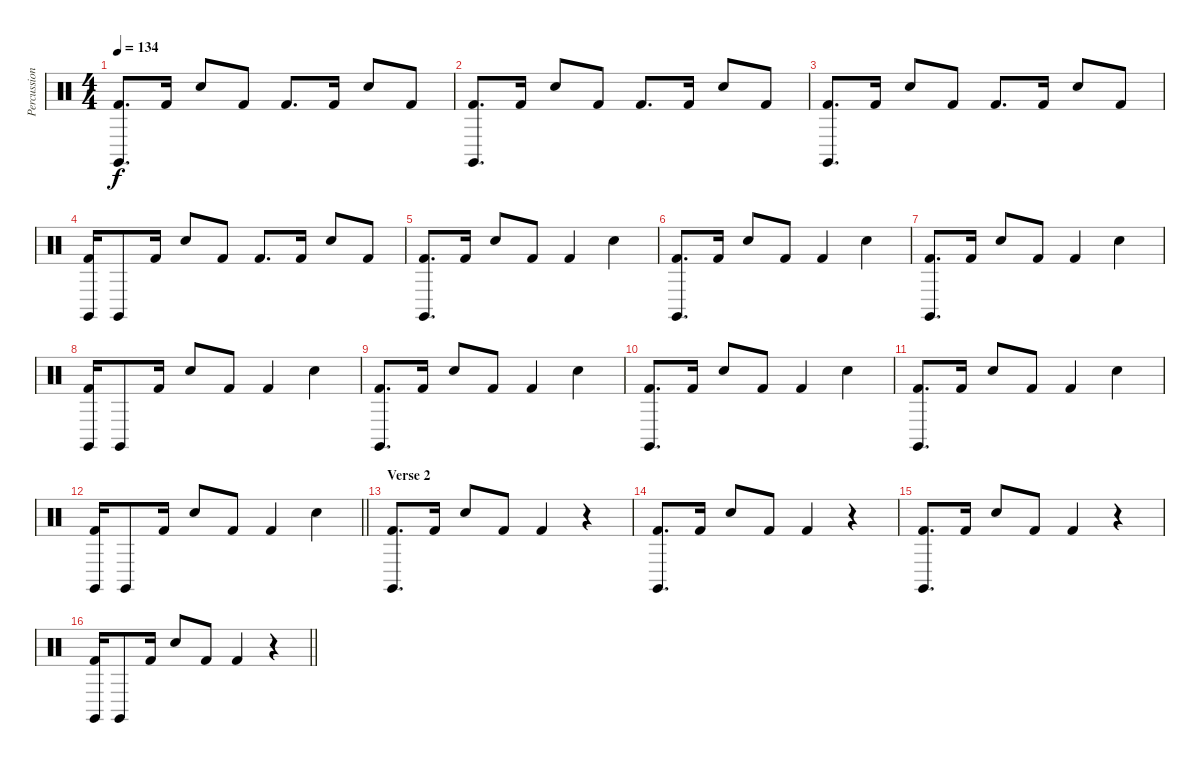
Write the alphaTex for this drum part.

\track ("Percussion" "Percussion") {instrument percussion}
\staff {score}
\articulation defaults
\ts (4 4)
\tempo 134
\clef neutral
\ks c
("Claves (hit)" "Kick (hit) 2").8{d dy f} "Kick (hit) 2".16 "Snare (hit) 2".8 "Kick (hit) 2".8 "Kick (hit) 2".8{d} "Kick (hit) 2".16 "Snare (hit) 2".8 "Kick (hit) 2".8 |
("Claves (hit)" "Kick (hit) 2").8{d} "Kick (hit) 2".16 "Snare (hit) 2".8 "Kick (hit) 2".8 "Kick (hit) 2".8{d} "Kick (hit) 2".16 "Snare (hit) 2".8 "Kick (hit) 2".8 |
("Claves (hit)" "Kick (hit) 2").8{d} "Kick (hit) 2".16 "Snare (hit) 2".8 "Kick (hit) 2".8 "Kick (hit) 2".8{d} "Kick (hit) 2".16 "Snare (hit) 2".8 "Kick (hit) 2".8 |
("Claves (hit)" "Kick (hit) 2").16 "Claves (hit)".8 "Kick (hit) 2".16 "Snare (hit) 2".8 "Kick (hit) 2".8 "Kick (hit) 2".8{d} "Kick (hit) 2".16 "Snare (hit) 2".8 "Kick (hit) 2".8 |
("Claves (hit)" "Kick (hit) 2").8{d} "Kick (hit) 2".16 "Snare (hit) 2".8 "Kick (hit) 2".8 "Kick (hit) 2".4 "Snare (hit) 2".4 |
("Claves (hit)" "Kick (hit) 2").8{d} "Kick (hit) 2".16 "Snare (hit) 2".8 "Kick (hit) 2".8 "Kick (hit) 2".4 "Snare (hit) 2".4 |
("Claves (hit)" "Kick (hit) 2").8{d} "Kick (hit) 2".16 "Snare (hit) 2".8 "Kick (hit) 2".8 "Kick (hit) 2".4 "Snare (hit) 2".4 |
("Claves (hit)" "Kick (hit) 2").16 "Claves (hit)".8 "Kick (hit) 2".16 "Snare (hit) 2".8 "Kick (hit) 2".8 "Kick (hit) 2".4 "Snare (hit) 2".4 |
("Claves (hit)" "Kick (hit) 2").8{d} "Kick (hit) 2".16 "Snare (hit) 2".8 "Kick (hit) 2".8 "Kick (hit) 2".4 "Snare (hit) 2".4 |
("Claves (hit)" "Kick (hit) 2").8{d} "Kick (hit) 2".16 "Snare (hit) 2".8 "Kick (hit) 2".8 "Kick (hit) 2".4 "Snare (hit) 2".4 |
("Claves (hit)" "Kick (hit) 2").8{d} "Kick (hit) 2".16 "Snare (hit) 2".8 "Kick (hit) 2".8 "Kick (hit) 2".4 "Snare (hit) 2".4 |
\barLineRight lightlight
("Claves (hit)" "Kick (hit) 2").16 "Claves (hit)".8 "Kick (hit) 2".16 "Snare (hit) 2".8 "Kick (hit) 2".8 "Kick (hit) 2".4 "Snare (hit) 2".4 |
\section ("" "Verse 2")
("Claves (hit)" "Kick (hit) 2").8{d} "Kick (hit) 2".16 "Snare (hit) 2".8 "Kick (hit) 2".8 "Kick (hit) 2".4 r.4 |
("Claves (hit)" "Kick (hit) 2").8{d} "Kick (hit) 2".16 "Snare (hit) 2".8 "Kick (hit) 2".8 "Kick (hit) 2".4 r.4 |
("Claves (hit)" "Kick (hit) 2").8{d} "Kick (hit) 2".16 "Snare (hit) 2".8 "Kick (hit) 2".8 "Kick (hit) 2".4 r.4 |
\barLineRight lightlight
("Claves (hit)" "Kick (hit) 2").16 "Claves (hit)".8 "Kick (hit) 2".16 "Snare (hit) 2".8 "Kick (hit) 2".8 "Kick (hit) 2".4 r.4
